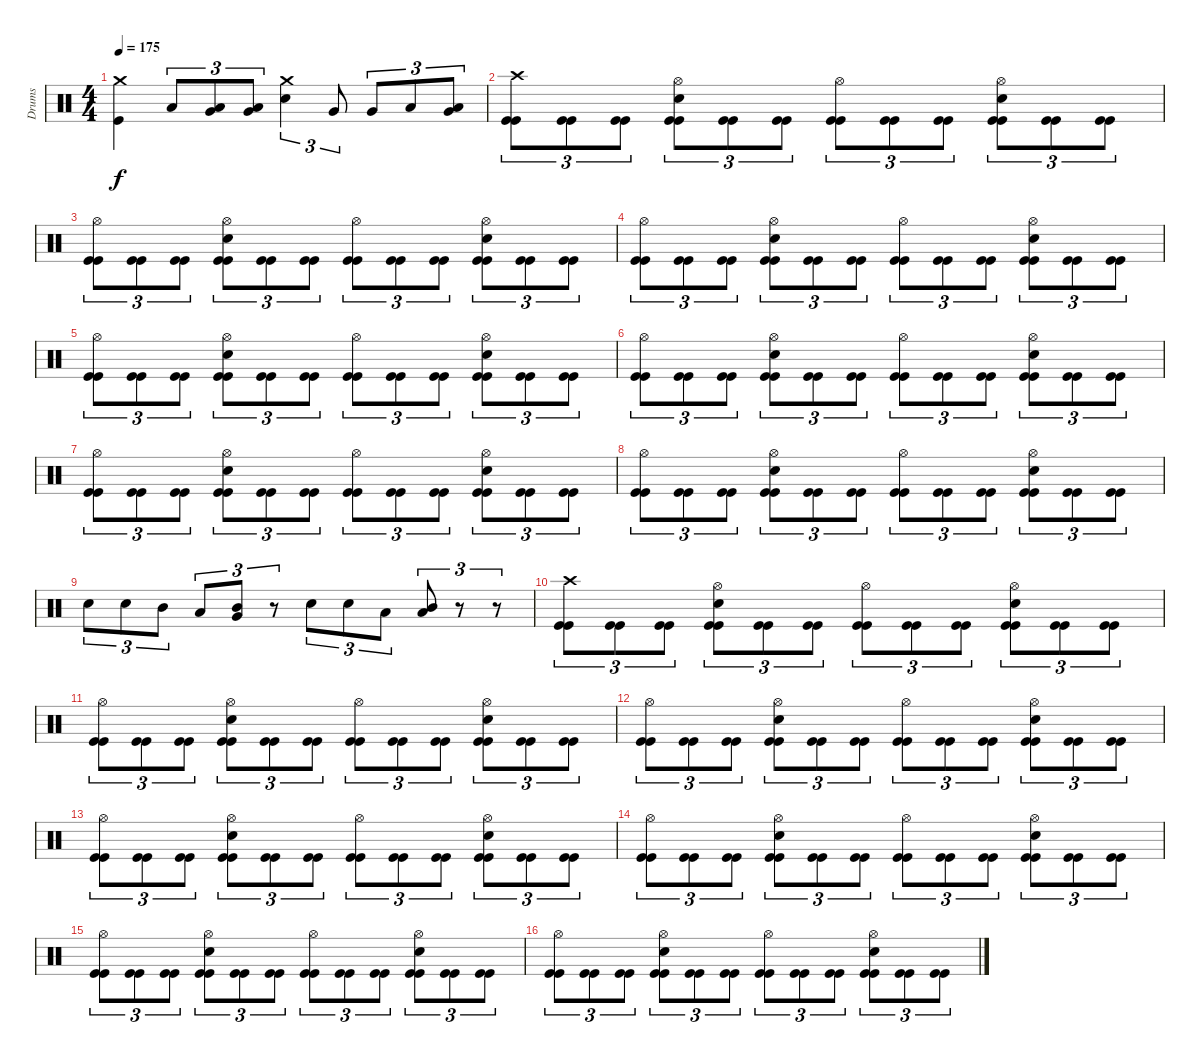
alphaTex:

\track ("Drums" "Drums") {instrument percussion}
\staff {score}
\articulation defaults
\ts (4 4)
\tempo 175
\clef neutral
\ks c
("Kick (hit)" "Crash medium (hit)").4{dy f} "Low Tom (hit)".8{tu (3 2)} ("Very Low Tom (hit)" "Low Tom (hit)").8{tu (3 2)} ("Very Low Tom (hit)" "Low Tom (hit)").8{tu (3 2)} ("Electric Snare (hit)" "Crash medium (hit)").4{tu (3 2)} "Very Low Tom (hit)".8{tu (3 2)} "Very Low Tom (hit)".8{tu (3 2)} "Low Tom (hit)".8{tu (3 2)} ("Low Tom (hit)" "Very Low Tom (hit)").8{tu (3 2)} |
("Kick (hit)" "Kick (hit)" "Crash high (hit)").8{tu (3 2)} ("Kick (hit)" "Kick (hit)").8{tu (3 2)} ("Kick (hit)" "Kick (hit)").8{tu (3 2)} ("Kick (hit)" "Kick (hit)" "Snare (hit) 2" "Hi-Hat (open)").8{tu (3 2)} ("Kick (hit)" "Kick (hit)").8{tu (3 2)} ("Kick (hit)" "Kick (hit)").8{tu (3 2)} ("Kick (hit)" "Kick (hit)" "Hi-Hat (open)").8{tu (3 2)} ("Kick (hit)" "Kick (hit)").8{tu (3 2)} ("Kick (hit)" "Kick (hit)").8{tu (3 2)} ("Kick (hit)" "Kick (hit)" "Snare (hit) 2" "Hi-Hat (open)").8{tu (3 2)} ("Kick (hit)" "Kick (hit)").8{tu (3 2)} ("Kick (hit)" "Kick (hit)").8{tu (3 2)} |
("Kick (hit)" "Kick (hit)" "Hi-Hat (open)").8{tu (3 2)} ("Kick (hit)" "Kick (hit)").8{tu (3 2)} ("Kick (hit)" "Kick (hit)").8{tu (3 2)} ("Kick (hit)" "Kick (hit)" "Snare (hit) 2" "Hi-Hat (open)").8{tu (3 2)} ("Kick (hit)" "Kick (hit)").8{tu (3 2)} ("Kick (hit)" "Kick (hit)").8{tu (3 2)} ("Kick (hit)" "Kick (hit)" "Hi-Hat (open)").8{tu (3 2)} ("Kick (hit)" "Kick (hit)").8{tu (3 2)} ("Kick (hit)" "Kick (hit)").8{tu (3 2)} ("Kick (hit)" "Kick (hit)" "Snare (hit) 2" "Hi-Hat (open)").8{tu (3 2)} ("Kick (hit)" "Kick (hit)").8{tu (3 2)} ("Kick (hit)" "Kick (hit)").8{tu (3 2)} |
("Kick (hit)" "Kick (hit)" "Hi-Hat (open)").8{tu (3 2)} ("Kick (hit)" "Kick (hit)").8{tu (3 2)} ("Kick (hit)" "Kick (hit)").8{tu (3 2)} ("Kick (hit)" "Kick (hit)" "Snare (hit) 2" "Hi-Hat (open)").8{tu (3 2)} ("Kick (hit)" "Kick (hit)").8{tu (3 2)} ("Kick (hit)" "Kick (hit)").8{tu (3 2)} ("Kick (hit)" "Kick (hit)" "Hi-Hat (open)").8{tu (3 2)} ("Kick (hit)" "Kick (hit)").8{tu (3 2)} ("Kick (hit)" "Kick (hit)").8{tu (3 2)} ("Kick (hit)" "Kick (hit)" "Snare (hit) 2" "Hi-Hat (open)").8{tu (3 2)} ("Kick (hit)" "Kick (hit)").8{tu (3 2)} ("Kick (hit)" "Kick (hit)").8{tu (3 2)} |
("Kick (hit)" "Kick (hit)" "Hi-Hat (open)").8{tu (3 2)} ("Kick (hit)" "Kick (hit)").8{tu (3 2)} ("Kick (hit)" "Kick (hit)").8{tu (3 2)} ("Kick (hit)" "Kick (hit)" "Snare (hit) 2" "Hi-Hat (open)").8{tu (3 2)} ("Kick (hit)" "Kick (hit)").8{tu (3 2)} ("Kick (hit)" "Kick (hit)").8{tu (3 2)} ("Kick (hit)" "Kick (hit)" "Hi-Hat (open)").8{tu (3 2)} ("Kick (hit)" "Kick (hit)").8{tu (3 2)} ("Kick (hit)" "Kick (hit)").8{tu (3 2)} ("Kick (hit)" "Kick (hit)" "Snare (hit) 2" "Hi-Hat (open)").8{tu (3 2)} ("Kick (hit)" "Kick (hit)").8{tu (3 2)} ("Kick (hit)" "Kick (hit)").8{tu (3 2)} |
("Kick (hit)" "Kick (hit)" "Hi-Hat (open)").8{tu (3 2)} ("Kick (hit)" "Kick (hit)").8{tu (3 2)} ("Kick (hit)" "Kick (hit)").8{tu (3 2)} ("Kick (hit)" "Kick (hit)" "Snare (hit) 2" "Hi-Hat (open)").8{tu (3 2)} ("Kick (hit)" "Kick (hit)").8{tu (3 2)} ("Kick (hit)" "Kick (hit)").8{tu (3 2)} ("Kick (hit)" "Kick (hit)" "Hi-Hat (open)").8{tu (3 2)} ("Kick (hit)" "Kick (hit)").8{tu (3 2)} ("Kick (hit)" "Kick (hit)").8{tu (3 2)} ("Kick (hit)" "Kick (hit)" "Snare (hit) 2" "Hi-Hat (open)").8{tu (3 2)} ("Kick (hit)" "Kick (hit)").8{tu (3 2)} ("Kick (hit)" "Kick (hit)").8{tu (3 2)} |
("Kick (hit)" "Kick (hit)" "Hi-Hat (open)").8{tu (3 2)} ("Kick (hit)" "Kick (hit)").8{tu (3 2)} ("Kick (hit)" "Kick (hit)").8{tu (3 2)} ("Kick (hit)" "Kick (hit)" "Snare (hit) 2" "Hi-Hat (open)").8{tu (3 2)} ("Kick (hit)" "Kick (hit)").8{tu (3 2)} ("Kick (hit)" "Kick (hit)").8{tu (3 2)} ("Kick (hit)" "Kick (hit)" "Hi-Hat (open)").8{tu (3 2)} ("Kick (hit)" "Kick (hit)").8{tu (3 2)} ("Kick (hit)" "Kick (hit)").8{tu (3 2)} ("Kick (hit)" "Kick (hit)" "Snare (hit) 2" "Hi-Hat (open)").8{tu (3 2)} ("Kick (hit)" "Kick (hit)").8{tu (3 2)} ("Kick (hit)" "Kick (hit)").8{tu (3 2)} |
("Kick (hit)" "Kick (hit)" "Hi-Hat (open)").8{tu (3 2)} ("Kick (hit)" "Kick (hit)").8{tu (3 2)} ("Kick (hit)" "Kick (hit)").8{tu (3 2)} ("Kick (hit)" "Kick (hit)" "Snare (hit) 2" "Hi-Hat (open)").8{tu (3 2)} ("Kick (hit)" "Kick (hit)").8{tu (3 2)} ("Kick (hit)" "Kick (hit)").8{tu (3 2)} ("Kick (hit)" "Kick (hit)" "Hi-Hat (open)").8{tu (3 2)} ("Kick (hit)" "Kick (hit)").8{tu (3 2)} ("Kick (hit)" "Kick (hit)").8{tu (3 2)} ("Kick (hit)" "Kick (hit)" "Snare (hit) 2" "Hi-Hat (open)").8{tu (3 2)} ("Kick (hit)" "Kick (hit)").8{tu (3 2)} ("Kick (hit)" "Kick (hit)").8{tu (3 2)} |
"Snare (hit) 2".8{tu (3 2)} "Snare (hit) 2".8{tu (3 2)} "Mid Tom (hit)".8{tu (3 2)} "Low Tom (hit)".8{tu (3 2)} ("Very Low Tom (hit)" "Mid Tom (hit)").8{tu (3 2)} r.8{tu (3 2)} "Snare (hit) 2".8{tu (3 2)} "Snare (hit) 2".8{tu (3 2)} "Low Tom (hit)".8{tu (3 2)} ("Low Floor Tom (hit)" "Mid Tom (hit)").8{tu (3 2)} r.8{tu (3 2)} r.8{tu (3 2)} |
("Kick (hit)" "Kick (hit)" "Crash high (hit)").8{tu (3 2)} ("Kick (hit)" "Kick (hit)").8{tu (3 2)} ("Kick (hit)" "Kick (hit)").8{tu (3 2)} ("Kick (hit)" "Kick (hit)" "Snare (hit) 2" "Hi-Hat (open)").8{tu (3 2)} ("Kick (hit)" "Kick (hit)").8{tu (3 2)} ("Kick (hit)" "Kick (hit)").8{tu (3 2)} ("Kick (hit)" "Kick (hit)" "Hi-Hat (open)").8{tu (3 2)} ("Kick (hit)" "Kick (hit)").8{tu (3 2)} ("Kick (hit)" "Kick (hit)").8{tu (3 2)} ("Kick (hit)" "Kick (hit)" "Snare (hit) 2" "Hi-Hat (open)").8{tu (3 2)} ("Kick (hit)" "Kick (hit)").8{tu (3 2)} ("Kick (hit)" "Kick (hit)").8{tu (3 2)} |
("Kick (hit)" "Kick (hit)" "Hi-Hat (open)").8{tu (3 2)} ("Kick (hit)" "Kick (hit)").8{tu (3 2)} ("Kick (hit)" "Kick (hit)").8{tu (3 2)} ("Kick (hit)" "Kick (hit)" "Snare (hit) 2" "Hi-Hat (open)").8{tu (3 2)} ("Kick (hit)" "Kick (hit)").8{tu (3 2)} ("Kick (hit)" "Kick (hit)").8{tu (3 2)} ("Kick (hit)" "Kick (hit)" "Hi-Hat (open)").8{tu (3 2)} ("Kick (hit)" "Kick (hit)").8{tu (3 2)} ("Kick (hit)" "Kick (hit)").8{tu (3 2)} ("Kick (hit)" "Kick (hit)" "Snare (hit) 2" "Hi-Hat (open)").8{tu (3 2)} ("Kick (hit)" "Kick (hit)").8{tu (3 2)} ("Kick (hit)" "Kick (hit)").8{tu (3 2)} |
("Kick (hit)" "Kick (hit)" "Hi-Hat (open)").8{tu (3 2)} ("Kick (hit)" "Kick (hit)").8{tu (3 2)} ("Kick (hit)" "Kick (hit)").8{tu (3 2)} ("Kick (hit)" "Kick (hit)" "Snare (hit) 2" "Hi-Hat (open)").8{tu (3 2)} ("Kick (hit)" "Kick (hit)").8{tu (3 2)} ("Kick (hit)" "Kick (hit)").8{tu (3 2)} ("Kick (hit)" "Kick (hit)" "Hi-Hat (open)").8{tu (3 2)} ("Kick (hit)" "Kick (hit)").8{tu (3 2)} ("Kick (hit)" "Kick (hit)").8{tu (3 2)} ("Kick (hit)" "Kick (hit)" "Snare (hit) 2" "Hi-Hat (open)").8{tu (3 2)} ("Kick (hit)" "Kick (hit)").8{tu (3 2)} ("Kick (hit)" "Kick (hit)").8{tu (3 2)} |
("Kick (hit)" "Kick (hit)" "Hi-Hat (open)").8{tu (3 2)} ("Kick (hit)" "Kick (hit)").8{tu (3 2)} ("Kick (hit)" "Kick (hit)").8{tu (3 2)} ("Kick (hit)" "Kick (hit)" "Snare (hit) 2" "Hi-Hat (open)").8{tu (3 2)} ("Kick (hit)" "Kick (hit)").8{tu (3 2)} ("Kick (hit)" "Kick (hit)").8{tu (3 2)} ("Kick (hit)" "Kick (hit)" "Hi-Hat (open)").8{tu (3 2)} ("Kick (hit)" "Kick (hit)").8{tu (3 2)} ("Kick (hit)" "Kick (hit)").8{tu (3 2)} ("Kick (hit)" "Kick (hit)" "Snare (hit) 2" "Hi-Hat (open)").8{tu (3 2)} ("Kick (hit)" "Kick (hit)").8{tu (3 2)} ("Kick (hit)" "Kick (hit)").8{tu (3 2)} |
("Kick (hit)" "Kick (hit)" "Hi-Hat (open)").8{tu (3 2)} ("Kick (hit)" "Kick (hit)").8{tu (3 2)} ("Kick (hit)" "Kick (hit)").8{tu (3 2)} ("Kick (hit)" "Kick (hit)" "Snare (hit) 2" "Hi-Hat (open)").8{tu (3 2)} ("Kick (hit)" "Kick (hit)").8{tu (3 2)} ("Kick (hit)" "Kick (hit)").8{tu (3 2)} ("Kick (hit)" "Kick (hit)" "Hi-Hat (open)").8{tu (3 2)} ("Kick (hit)" "Kick (hit)").8{tu (3 2)} ("Kick (hit)" "Kick (hit)").8{tu (3 2)} ("Kick (hit)" "Kick (hit)" "Snare (hit) 2" "Hi-Hat (open)").8{tu (3 2)} ("Kick (hit)" "Kick (hit)").8{tu (3 2)} ("Kick (hit)" "Kick (hit)").8{tu (3 2)} |
("Kick (hit)" "Kick (hit)" "Hi-Hat (open)").8{tu (3 2)} ("Kick (hit)" "Kick (hit)").8{tu (3 2)} ("Kick (hit)" "Kick (hit)").8{tu (3 2)} ("Kick (hit)" "Kick (hit)" "Snare (hit) 2" "Hi-Hat (open)").8{tu (3 2)} ("Kick (hit)" "Kick (hit)").8{tu (3 2)} ("Kick (hit)" "Kick (hit)").8{tu (3 2)} ("Kick (hit)" "Kick (hit)" "Hi-Hat (open)").8{tu (3 2)} ("Kick (hit)" "Kick (hit)").8{tu (3 2)} ("Kick (hit)" "Kick (hit)").8{tu (3 2)} ("Kick (hit)" "Kick (hit)" "Snare (hit) 2" "Hi-Hat (open)").8{tu (3 2)} ("Kick (hit)" "Kick (hit)").8{tu (3 2)} ("Kick (hit)" "Kick (hit)").8{tu (3 2)} |
("Kick (hit)" "Kick (hit)" "Hi-Hat (open)").8{tu (3 2)} ("Kick (hit)" "Kick (hit)").8{tu (3 2)} ("Kick (hit)" "Kick (hit)").8{tu (3 2)} ("Kick (hit)" "Kick (hit)" "Snare (hit) 2" "Hi-Hat (open)").8{tu (3 2)} ("Kick (hit)" "Kick (hit)").8{tu (3 2)} ("Kick (hit)" "Kick (hit)").8{tu (3 2)} ("Kick (hit)" "Kick (hit)" "Hi-Hat (open)").8{tu (3 2)} ("Kick (hit)" "Kick (hit)").8{tu (3 2)} ("Kick (hit)" "Kick (hit)").8{tu (3 2)} ("Kick (hit)" "Kick (hit)" "Snare (hit) 2" "Hi-Hat (open)").8{tu (3 2)} ("Kick (hit)" "Kick (hit)").8{tu (3 2)} ("Kick (hit)" "Kick (hit)").8{tu (3 2)}
